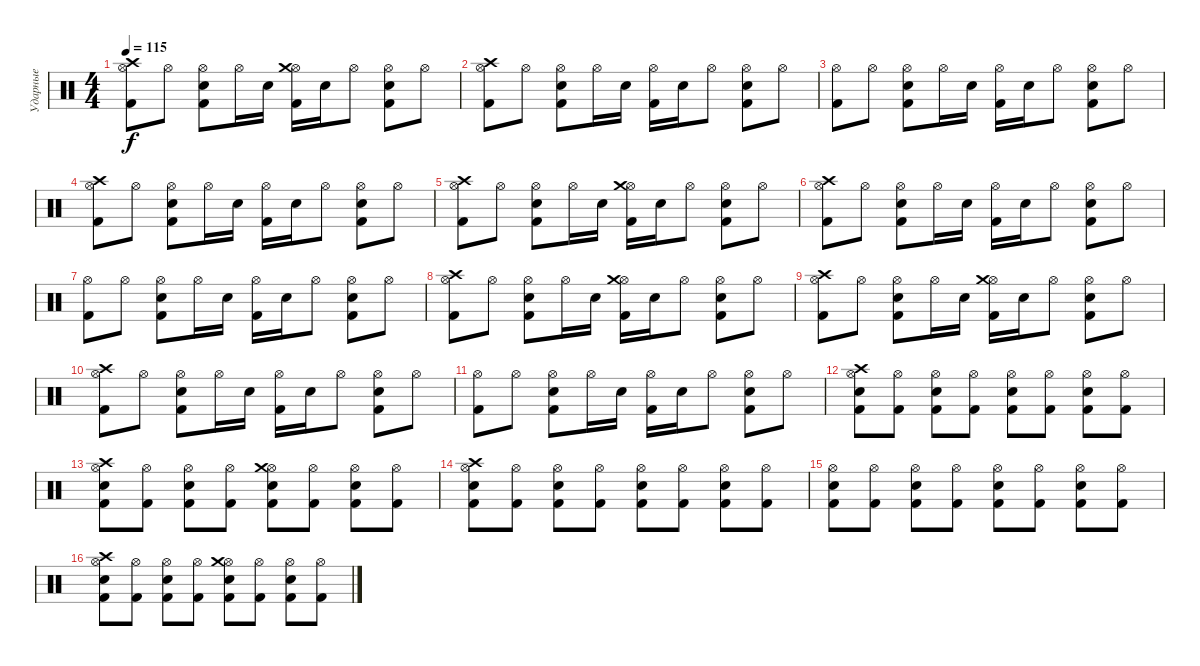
\track ("Ударные" "Ударные") {instrument percussion}
\staff {score}
\articulation defaults
\ts (4 4)
\tempo 115
\clef neutral
\ks c
("Hi-Hat (open)" "Crash high (hit)" "Kick (hit) 2").8{dy f} "Hi-Hat (open)".8 ("Hi-Hat (open)" "Electric Snare (hit)" "Kick (hit) 2").8 "Hi-Hat (open)".16 "Electric Snare (hit)".16 ("Hi-Hat (open)" "Crash medium (hit)" "Kick (hit) 2").16 "Electric Snare (hit)".16 "Hi-Hat (open)".8 ("Hi-Hat (open)" "Electric Snare (hit)" "Kick (hit) 2").8 "Hi-Hat (open)".8 |
("Hi-Hat (open)" "Crash high (hit)" "Kick (hit) 2").8 "Hi-Hat (open)".8 ("Hi-Hat (open)" "Electric Snare (hit)" "Kick (hit) 2").8 "Hi-Hat (open)".16 "Electric Snare (hit)".16 ("Hi-Hat (open)" "Kick (hit) 2").16 "Electric Snare (hit)".16 "Hi-Hat (open)".8 ("Hi-Hat (open)" "Electric Snare (hit)" "Kick (hit) 2").8 "Hi-Hat (open)".8 |
("Hi-Hat (open)" "Kick (hit) 2").8 "Hi-Hat (open)".8 ("Hi-Hat (open)" "Electric Snare (hit)" "Kick (hit) 2").8 "Hi-Hat (open)".16 "Electric Snare (hit)".16 ("Hi-Hat (open)" "Kick (hit) 2").16 "Electric Snare (hit)".16 "Hi-Hat (open)".8 ("Hi-Hat (open)" "Electric Snare (hit)" "Kick (hit) 2").8 "Hi-Hat (open)".8 |
("Hi-Hat (open)" "Crash high (hit)" "Kick (hit) 2").8 "Hi-Hat (open)".8 ("Hi-Hat (open)" "Electric Snare (hit)" "Kick (hit) 2").8 "Hi-Hat (open)".16 "Electric Snare (hit)".16 ("Hi-Hat (open)" "Kick (hit) 2").16 "Electric Snare (hit)".16 "Hi-Hat (open)".8 ("Hi-Hat (open)" "Electric Snare (hit)" "Kick (hit) 2").8 "Hi-Hat (open)".8 |
("Hi-Hat (open)" "Crash high (hit)" "Kick (hit) 2").8 "Hi-Hat (open)".8 ("Hi-Hat (open)" "Electric Snare (hit)" "Kick (hit) 2").8 "Hi-Hat (open)".16 "Electric Snare (hit)".16 ("Hi-Hat (open)" "Crash medium (hit)" "Kick (hit) 2").16 "Electric Snare (hit)".16 "Hi-Hat (open)".8 ("Hi-Hat (open)" "Electric Snare (hit)" "Kick (hit) 2").8 "Hi-Hat (open)".8 |
("Hi-Hat (open)" "Crash high (hit)" "Kick (hit) 2").8 "Hi-Hat (open)".8 ("Hi-Hat (open)" "Electric Snare (hit)" "Kick (hit) 2").8 "Hi-Hat (open)".16 "Electric Snare (hit)".16 ("Hi-Hat (open)" "Kick (hit) 2").16 "Electric Snare (hit)".16 "Hi-Hat (open)".8 ("Hi-Hat (open)" "Electric Snare (hit)" "Kick (hit) 2").8 "Hi-Hat (open)".8 |
("Hi-Hat (open)" "Kick (hit) 2").8 "Hi-Hat (open)".8 ("Hi-Hat (open)" "Electric Snare (hit)" "Kick (hit) 2").8 "Hi-Hat (open)".16 "Electric Snare (hit)".16 ("Hi-Hat (open)" "Kick (hit) 2").16 "Electric Snare (hit)".16 "Hi-Hat (open)".8 ("Hi-Hat (open)" "Electric Snare (hit)" "Kick (hit) 2").8 "Hi-Hat (open)".8 |
("Hi-Hat (open)" "Crash high (hit)" "Kick (hit) 2").8 "Hi-Hat (open)".8 ("Hi-Hat (open)" "Electric Snare (hit)" "Kick (hit) 2").8 "Hi-Hat (open)".16 "Electric Snare (hit)".16 ("Hi-Hat (open)" "Crash medium (hit)" "Kick (hit) 2").16 "Electric Snare (hit)".16 "Hi-Hat (open)".8 ("Hi-Hat (open)" "Electric Snare (hit)" "Kick (hit) 2").8 "Hi-Hat (open)".8 |
("Hi-Hat (open)" "Crash high (hit)" "Kick (hit) 2").8 "Hi-Hat (open)".8 ("Hi-Hat (open)" "Electric Snare (hit)" "Kick (hit) 2").8 "Hi-Hat (open)".16 "Electric Snare (hit)".16 ("Hi-Hat (open)" "Crash medium (hit)" "Kick (hit) 2").16 "Electric Snare (hit)".16 "Hi-Hat (open)".8 ("Hi-Hat (open)" "Electric Snare (hit)" "Kick (hit) 2").8 "Hi-Hat (open)".8 |
("Hi-Hat (open)" "Crash high (hit)" "Kick (hit) 2").8 "Hi-Hat (open)".8 ("Hi-Hat (open)" "Electric Snare (hit)" "Kick (hit) 2").8 "Hi-Hat (open)".16 "Electric Snare (hit)".16 ("Hi-Hat (open)" "Kick (hit) 2").16 "Electric Snare (hit)".16 "Hi-Hat (open)".8 ("Hi-Hat (open)" "Electric Snare (hit)" "Kick (hit) 2").8 "Hi-Hat (open)".8 |
("Hi-Hat (open)" "Kick (hit) 2").8 "Hi-Hat (open)".8 ("Hi-Hat (open)" "Electric Snare (hit)" "Kick (hit) 2").8 "Hi-Hat (open)".16 "Electric Snare (hit)".16 ("Hi-Hat (open)" "Kick (hit) 2").16 "Electric Snare (hit)".16 "Hi-Hat (open)".8 ("Hi-Hat (open)" "Electric Snare (hit)" "Kick (hit) 2").8 "Hi-Hat (open)".8 |
("Hi-Hat (open)" "Electric Snare (hit)" "Crash high (hit)" "Kick (hit) 2").8 ("Hi-Hat (open)" "Kick (hit) 2").8 ("Hi-Hat (open)" "Electric Snare (hit)" "Kick (hit) 2").8 ("Hi-Hat (open)" "Kick (hit) 2").8 ("Hi-Hat (open)" "Electric Snare (hit)" "Kick (hit) 2").8 ("Hi-Hat (open)" "Kick (hit) 2").8 ("Hi-Hat (open)" "Electric Snare (hit)" "Kick (hit) 2").8 ("Hi-Hat (open)" "Kick (hit) 2").8 |
("Hi-Hat (open)" "Electric Snare (hit)" "Crash high (hit)" "Kick (hit) 2").8 ("Hi-Hat (open)" "Kick (hit) 2").8 ("Hi-Hat (open)" "Electric Snare (hit)" "Kick (hit) 2").8 ("Hi-Hat (open)" "Kick (hit) 2").8 ("Hi-Hat (open)" "Electric Snare (hit)" "Crash medium (hit)" "Kick (hit) 2").8 ("Hi-Hat (open)" "Kick (hit) 2").8 ("Hi-Hat (open)" "Electric Snare (hit)" "Kick (hit) 2").8 ("Hi-Hat (open)" "Kick (hit) 2").8 |
("Hi-Hat (open)" "Electric Snare (hit)" "Crash high (hit)" "Kick (hit) 2").8 ("Hi-Hat (open)" "Kick (hit) 2").8 ("Hi-Hat (open)" "Electric Snare (hit)" "Kick (hit) 2").8 ("Hi-Hat (open)" "Kick (hit) 2").8 ("Hi-Hat (open)" "Electric Snare (hit)" "Kick (hit) 2").8 ("Hi-Hat (open)" "Kick (hit) 2").8 ("Hi-Hat (open)" "Electric Snare (hit)" "Kick (hit) 2").8 ("Hi-Hat (open)" "Kick (hit) 2").8 |
("Hi-Hat (open)" "Electric Snare (hit)" "Kick (hit) 2").8 ("Hi-Hat (open)" "Kick (hit) 2").8 ("Hi-Hat (open)" "Electric Snare (hit)" "Kick (hit) 2").8 ("Hi-Hat (open)" "Kick (hit) 2").8 ("Hi-Hat (open)" "Electric Snare (hit)" "Kick (hit) 2").8 ("Hi-Hat (open)" "Kick (hit) 2").8 ("Hi-Hat (open)" "Electric Snare (hit)" "Kick (hit) 2").8 ("Hi-Hat (open)" "Kick (hit) 2").8 |
("Hi-Hat (open)" "Electric Snare (hit)" "Crash high (hit)" "Kick (hit) 2").8 ("Hi-Hat (open)" "Kick (hit) 2").8 ("Hi-Hat (open)" "Electric Snare (hit)" "Kick (hit) 2").8 ("Hi-Hat (open)" "Kick (hit) 2").8 ("Hi-Hat (open)" "Electric Snare (hit)" "Crash medium (hit)" "Kick (hit) 2").8 ("Hi-Hat (open)" "Kick (hit) 2").8 ("Hi-Hat (open)" "Electric Snare (hit)" "Kick (hit) 2").8 ("Hi-Hat (open)" "Kick (hit) 2").8
